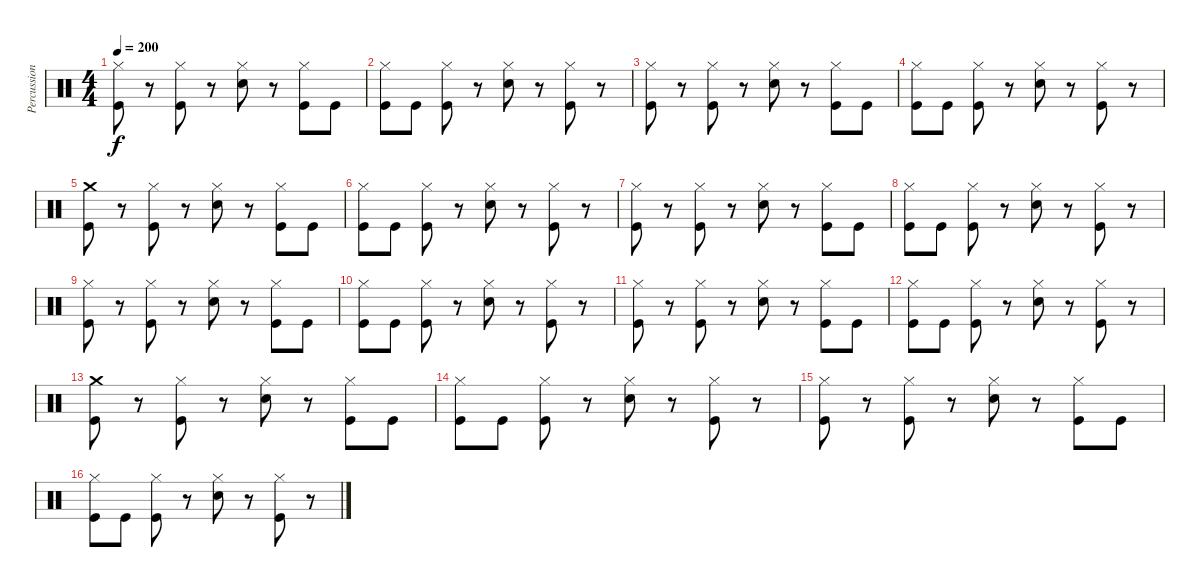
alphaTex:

\track ("Percussion" "Percussion") {instrument percussion}
\staff {score}
\articulation defaults
\ts (4 4)
\tempo 200
\clef neutral
\ks c
("Hi-Hat (closed)" "Kick (hit)").8{dy f} r.8 ("Hi-Hat (closed)" "Kick (hit)").8 r.8 ("Hi-Hat (closed)" "Snare (hit) 2").8 r.8 ("Hi-Hat (closed)" "Kick (hit)").8 "Kick (hit)".8 |
("Hi-Hat (closed)" "Kick (hit)").8 "Kick (hit)".8 ("Hi-Hat (closed)" "Kick (hit)").8 r.8 ("Hi-Hat (closed)" "Snare (hit) 2").8 r.8 ("Hi-Hat (closed)" "Kick (hit)").8 r.8 |
("Hi-Hat (closed)" "Kick (hit)").8 r.8 ("Hi-Hat (closed)" "Kick (hit)").8 r.8 ("Hi-Hat (closed)" "Snare (hit) 2").8 r.8 ("Hi-Hat (closed)" "Kick (hit)").8 "Kick (hit)".8 |
("Hi-Hat (closed)" "Kick (hit)").8 "Kick (hit)".8 ("Hi-Hat (closed)" "Kick (hit)").8 r.8 ("Hi-Hat (closed)" "Snare (hit) 2").8 r.8 ("Hi-Hat (closed)" "Kick (hit)").8 r.8 |
("Crash medium (hit)" "Kick (hit)").8 r.8 ("Hi-Hat (closed)" "Kick (hit)").8 r.8 ("Hi-Hat (closed)" "Snare (hit) 2").8 r.8 ("Hi-Hat (closed)" "Kick (hit)").8 "Kick (hit)".8 |
("Hi-Hat (closed)" "Kick (hit)").8 "Kick (hit)".8 ("Hi-Hat (closed)" "Kick (hit)").8 r.8 ("Hi-Hat (closed)" "Snare (hit) 2").8 r.8 ("Hi-Hat (closed)" "Kick (hit)").8 r.8 |
("Hi-Hat (closed)" "Kick (hit)").8 r.8 ("Hi-Hat (closed)" "Kick (hit)").8 r.8 ("Hi-Hat (closed)" "Snare (hit) 2").8 r.8 ("Hi-Hat (closed)" "Kick (hit)").8 "Kick (hit)".8 |
("Hi-Hat (closed)" "Kick (hit)").8 "Kick (hit)".8 ("Hi-Hat (closed)" "Kick (hit)").8 r.8 ("Hi-Hat (closed)" "Snare (hit) 2").8 r.8 ("Hi-Hat (closed)" "Kick (hit)").8 r.8 |
("Hi-Hat (closed)" "Kick (hit)").8 r.8 ("Hi-Hat (closed)" "Kick (hit)").8 r.8 ("Hi-Hat (closed)" "Snare (hit) 2").8 r.8 ("Hi-Hat (closed)" "Kick (hit)").8 "Kick (hit)".8 |
("Hi-Hat (closed)" "Kick (hit)").8 "Kick (hit)".8 ("Hi-Hat (closed)" "Kick (hit)").8 r.8 ("Hi-Hat (closed)" "Snare (hit) 2").8 r.8 ("Hi-Hat (closed)" "Kick (hit)").8 r.8 |
("Hi-Hat (closed)" "Kick (hit)").8 r.8 ("Hi-Hat (closed)" "Kick (hit)").8 r.8 ("Hi-Hat (closed)" "Snare (hit) 2").8 r.8 ("Hi-Hat (closed)" "Kick (hit)").8 "Kick (hit)".8 |
("Hi-Hat (closed)" "Kick (hit)").8 "Kick (hit)".8 ("Hi-Hat (closed)" "Kick (hit)").8 r.8 ("Hi-Hat (closed)" "Snare (hit) 2").8 r.8 ("Hi-Hat (closed)" "Kick (hit)").8 r.8 |
("Crash medium (hit)" "Kick (hit)").8 r.8 ("Hi-Hat (closed)" "Kick (hit)").8 r.8 ("Hi-Hat (closed)" "Snare (hit) 2").8 r.8 ("Hi-Hat (closed)" "Kick (hit)").8 "Kick (hit)".8 |
("Hi-Hat (closed)" "Kick (hit)").8 "Kick (hit)".8 ("Hi-Hat (closed)" "Kick (hit)").8 r.8 ("Hi-Hat (closed)" "Snare (hit) 2").8 r.8 ("Hi-Hat (closed)" "Kick (hit)").8 r.8 |
("Hi-Hat (closed)" "Kick (hit)").8 r.8 ("Hi-Hat (closed)" "Kick (hit)").8 r.8 ("Hi-Hat (closed)" "Snare (hit) 2").8 r.8 ("Hi-Hat (closed)" "Kick (hit)").8 "Kick (hit)".8 |
("Hi-Hat (closed)" "Kick (hit)").8 "Kick (hit)".8 ("Hi-Hat (closed)" "Kick (hit)").8 r.8 ("Hi-Hat (closed)" "Snare (hit) 2").8 r.8 ("Hi-Hat (closed)" "Kick (hit)").8 r.8
